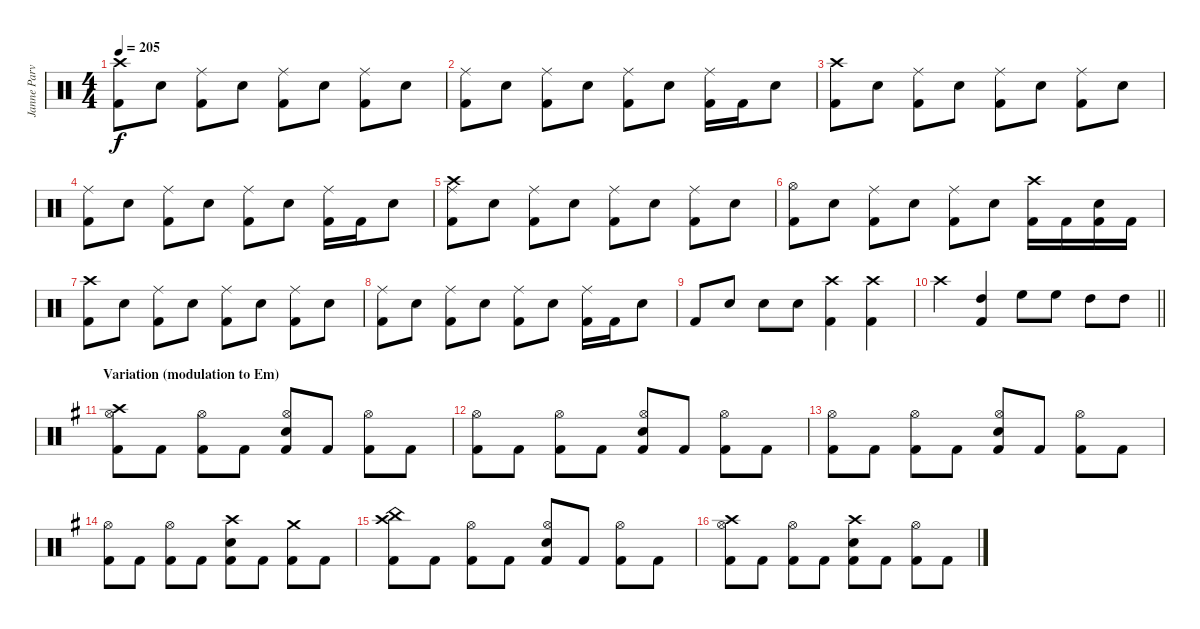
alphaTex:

\track ("Janne Parviainen" "Janne Parv") {instrument percussion}
\staff {score}
\articulation defaults
\ts (4 4)
\tempo 205
\clef neutral
\ks c
("Crash high (hit)" "Kick (hit) 2").8{dy f} "Electric Snare (hit)".8 ("Ride (middle)" "Kick (hit) 2").8 "Electric Snare (hit)".8 ("Ride (middle)" "Kick (hit) 2").8 "Electric Snare (hit)".8 ("Ride (middle)" "Kick (hit) 2").8 "Electric Snare (hit)".8 |
("Ride (middle)" "Kick (hit) 2").8 "Electric Snare (hit)".8 ("Ride (middle)" "Kick (hit) 2").8 "Electric Snare (hit)".8 ("Ride (middle)" "Kick (hit) 2").8 "Electric Snare (hit)".8 ("Ride (middle)" "Kick (hit) 2").16 "Kick (hit) 2".16 "Electric Snare (hit)".8 |
("Crash high (hit)" "Kick (hit) 2").8 "Electric Snare (hit)".8 ("Ride (middle)" "Kick (hit) 2").8 "Electric Snare (hit)".8 ("Ride (middle)" "Kick (hit) 2").8 "Electric Snare (hit)".8 ("Ride (middle)" "Kick (hit) 2").8 "Electric Snare (hit)".8 |
("Ride (middle)" "Kick (hit) 2").8 "Electric Snare (hit)".8 ("Ride (middle)" "Kick (hit) 2").8 "Electric Snare (hit)".8 ("Ride (middle)" "Kick (hit) 2").8 "Electric Snare (hit)".8 ("Ride (middle)" "Kick (hit) 2").16 "Kick (hit) 2".16 "Electric Snare (hit)".8 |
("Crash high (hit)" "Ride (middle)" "Kick (hit) 2").8 "Electric Snare (hit)".8 ("Ride (middle)" "Kick (hit) 2").8 "Electric Snare (hit)".8 ("Ride (middle)" "Kick (hit) 2").8 "Electric Snare (hit)".8 ("Ride (middle)" "Kick (hit) 2").8 "Electric Snare (hit)".8 |
("Hi-Hat (open)" "Kick (hit) 2").8 "Electric Snare (hit)".8 ("Ride (middle)" "Kick (hit) 2").8 "Electric Snare (hit)".8 ("Ride (middle)" "Kick (hit) 2").8 "Electric Snare (hit)".8 ("Crash high (hit)" "Kick (hit) 2").16 "Kick (hit) 2".16 ("Electric Snare (hit)" "Kick (hit) 2").16 "Kick (hit) 2".16 |
("Crash high (hit)" "Kick (hit) 2").8 "Electric Snare (hit)".8 ("Ride (middle)" "Kick (hit) 2").8 "Electric Snare (hit)".8 ("Ride (middle)" "Kick (hit) 2").8 "Electric Snare (hit)".8 ("Ride (middle)" "Kick (hit) 2").8 "Electric Snare (hit)".8 |
("Ride (middle)" "Kick (hit) 2").8 "Electric Snare (hit)".8 ("Ride (middle)" "Kick (hit) 2").8 "Electric Snare (hit)".8 ("Ride (middle)" "Kick (hit) 2").8 "Electric Snare (hit)".8 ("Ride (middle)" "Kick (hit) 2").16 "Kick (hit) 2".16 "Electric Snare (hit)".8 |
"Kick (hit) 2".8 "Snare (hit) 2".8 "Snare (hit) 2".8 "Snare (hit) 2".8 ("Crash high (hit)" "Kick (hit) 2").4 ("Crash high (hit)" "Kick (hit) 2").4 |
\barLineRight lightlight "Crash high (hit)".4
("High Tom (hit)" "Kick (hit) 2").4 "High Floor Tom (hit)".8 "High Floor Tom (hit)".8 "High Tom (hit)".8 "High Tom (hit)".8 |
\section ("" "Variation (modulation to Em)")
\ks eminor
("Crash high (hit)" "Hi-Hat (open)" "Kick (hit) 2").8 "Kick (hit) 2".8 ("Hi-Hat (open)" "Kick (hit) 2").8 "Kick (hit) 2".8 ("Hi-Hat (open)" "Snare (hit) 2" "Kick (hit) 2").8 "Kick (hit) 2".8 ("Hi-Hat (open)" "Kick (hit) 2").8 "Kick (hit) 2".8 |
("Hi-Hat (open)" "Kick (hit) 2").8 "Kick (hit) 2".8 ("Hi-Hat (open)" "Kick (hit) 2").8 "Kick (hit) 2".8 ("Snare (hit) 2" "Hi-Hat (open)" "Kick (hit) 2").8 "Kick (hit) 2".8 ("Hi-Hat (open)" "Kick (hit) 2").8 "Kick (hit) 2".8 |
("Hi-Hat (open)" "Kick (hit) 2").8 "Kick (hit) 2".8 ("Hi-Hat (open)" "Kick (hit) 2").8 "Kick (hit) 2".8 ("Hi-Hat (open)" "Snare (hit) 2" "Kick (hit) 2").8 "Kick (hit) 2".8 ("Hi-Hat (open)" "Kick (hit) 2").8 "Kick (hit) 2".8 |
("Hi-Hat (open)" "Kick (hit) 2").8 "Kick (hit) 2".8 ("Hi-Hat (open)" "Kick (hit) 2").8 "Kick (hit) 2".8 ("Snare (hit) 2" "Crash high (hit)" "Kick (hit) 2").8 "Kick (hit) 2".8 ("Crash medium (hit)" "Kick (hit) 2").8 "Kick (hit) 2".8 |
("Crash high (hit)" "China (hit)" "Kick (hit) 2").8 "Kick (hit) 2".8 ("Hi-Hat (open)" "Kick (hit) 2").8 "Kick (hit) 2".8 ("Hi-Hat (open)" "Snare (hit) 2" "Kick (hit) 2").8 "Kick (hit) 2".8 ("Hi-Hat (open)" "Kick (hit) 2").8 "Kick (hit) 2".8 |
("Crash high (hit)" "Hi-Hat (open)" "Kick (hit) 2").8 "Kick (hit) 2".8 ("Hi-Hat (open)" "Kick (hit) 2").8 "Kick (hit) 2".8 ("Snare (hit) 2" "Crash high (hit)" "Kick (hit) 2").8 "Kick (hit) 2".8 ("Hi-Hat (open)" "Kick (hit) 2").8 "Kick (hit) 2".8
